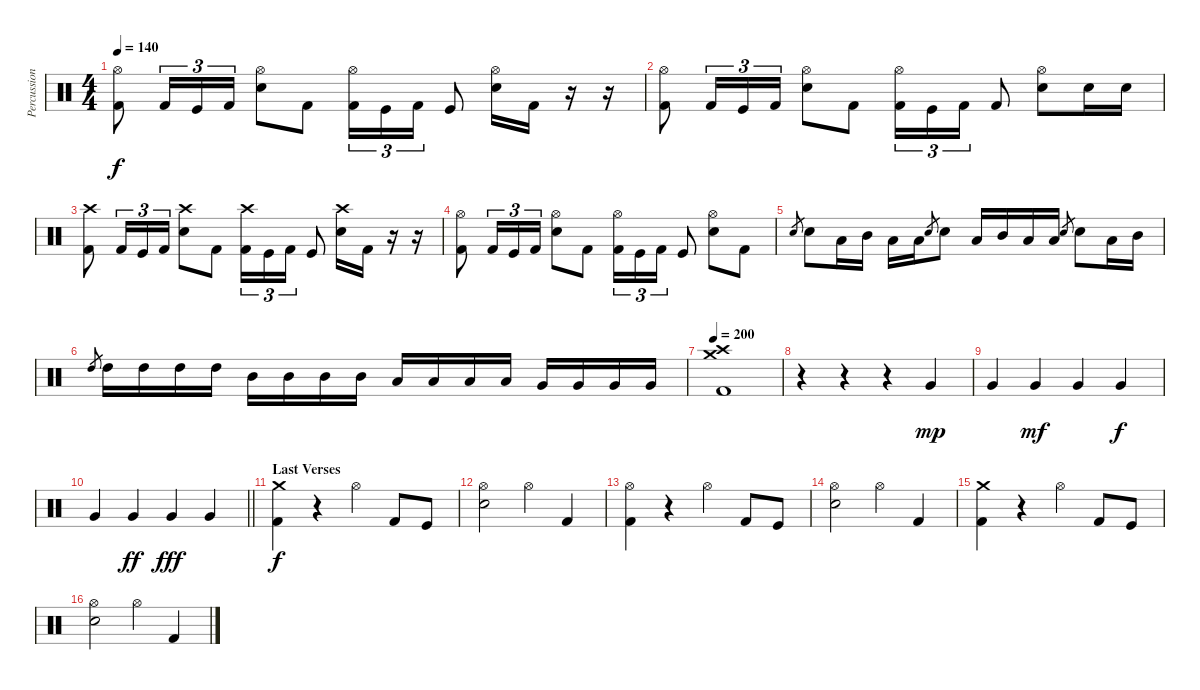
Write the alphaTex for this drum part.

\track ("Percussion" "Percussion") {instrument percussion}
\staff {score}
\articulation defaults
\ts (4 4)
\tempo 140
\clef neutral
\ks c
("Hi-Hat (open)" "Kick (hit) 2").8{dy f} "Kick (hit) 2".16{tu (3 2)} "Kick (hit)".16{tu (3 2)} "Kick (hit) 2".16{tu (3 2)} ("Hi-Hat (open)" "Snare (hit) 2").8 "Kick (hit) 2".8 ("Hi-Hat (open)" "Kick (hit) 2").16{tu (3 2)} "Kick (hit)".16{tu (3 2)} "Kick (hit) 2".16{tu (3 2)} "Kick (hit)".8 ("Hi-Hat (open)" "Snare (hit) 2").16 "Kick (hit) 2".16 r.16 r.16 |
("Hi-Hat (open)" "Kick (hit) 2").8 "Kick (hit) 2".16{tu (3 2)} "Kick (hit)".16{tu (3 2)} "Kick (hit) 2".16{tu (3 2)} ("Hi-Hat (open)" "Snare (hit) 2").8 "Kick (hit) 2".8 ("Hi-Hat (open)" "Kick (hit) 2").16{tu (3 2)} "Kick (hit)".16{tu (3 2)} "Kick (hit) 2".16{tu (3 2)} "Kick (hit) 2".8 ("Hi-Hat (open)" "Snare (hit) 2").8 "Snare (hit) 2".16 "Snare (hit) 2".16 |
("Crash high (hit)" "Kick (hit) 2").8 "Kick (hit) 2".16{tu (3 2)} "Kick (hit)".16{tu (3 2)} "Kick (hit) 2".16{tu (3 2)} ("Crash high (hit)" "Snare (hit) 2").8 "Kick (hit) 2".8 ("Crash high (hit)" "Kick (hit) 2").16{tu (3 2)} "Kick (hit)".16{tu (3 2)} "Kick (hit) 2".16{tu (3 2)} "Kick (hit)".8 ("Crash high (hit)" "Snare (hit) 2").16 "Kick (hit) 2".16 r.16 r.16 |
("Hi-Hat (open)" "Kick (hit) 2").8 "Kick (hit) 2".16{tu (3 2)} "Kick (hit)".16{tu (3 2)} "Kick (hit) 2".16{tu (3 2)} ("Hi-Hat (open)" "Snare (hit) 2").8 "Kick (hit) 2".8 ("Hi-Hat (open)" "Kick (hit) 2").16{tu (3 2)} "Kick (hit)".16{tu (3 2)} "Kick (hit) 2".16{tu (3 2)} "Kick (hit)".8 ("Hi-Hat (open)" "Snare (hit) 2").8 "Kick (hit) 2".8 |
"Snare (hit) 2".8{gr} "Snare (hit) 2".8 "Low Tom (hit)".16 "Mid Tom (hit)".16 "Low Tom (hit)".16 "Low Tom (hit)".16 "Snare (hit) 2".8{gr} "Snare (hit) 2".8 "Low Tom (hit)".16 "Mid Tom (hit)".16 "Low Tom (hit)".16 "Low Tom (hit)".16 "Snare (hit) 2".8{gr} "Snare (hit) 2".8 "Low Tom (hit)".16 "Mid Tom (hit)".16 |
"High Tom (hit)".8{gr} "High Tom (hit)".16 "High Tom (hit)".16 "High Tom (hit)".16 "High Tom (hit)".16 "Mid Tom (hit)".16 "Mid Tom (hit)".16 "Mid Tom (hit)".16 "Mid Tom (hit)".16 "Low Tom (hit)".16 "Low Tom (hit)".16 "Low Tom (hit)".16 "Low Tom (hit)".16 "Very Low Tom (hit)".16 "Very Low Tom (hit)".16 "Very Low Tom (hit)".16 "Very Low Tom (hit)".16 |
\tempo 200
("Crash medium (hit)" "Crash high (hit)" "Kick (hit) 2").1 |
r.4 r.4 r.4 "Very Low Tom (hit)".4{dy mp} |
"Very Low Tom (hit)".4 "Very Low Tom (hit)".4{dy mf} "Very Low Tom (hit)".4 "Very Low Tom (hit)".4{dy f} |
\barLineRight lightlight "Very Low Tom (hit)".4 "Very Low Tom (hit)".4{dy ff} "Very Low Tom (hit)".4{dy fff} "Very Low Tom (hit)".4
|
\section ("" "Last Verses")
("Crash medium (hit)" "Kick (hit) 2").4{dy f} r.4 "Hi-Hat (open)".4 "Kick (hit) 2".8 "Kick (hit)".8 |
("Hi-Hat (open)" "Snare (hit) 2").2 "Hi-Hat (open)".4 "Kick (hit) 2".4 |
("Hi-Hat (open)" "Kick (hit) 2").4 r.4 "Hi-Hat (open)".4 "Kick (hit) 2".8 "Kick (hit)".8 |
("Hi-Hat (open)" "Snare (hit) 2").2 "Hi-Hat (open)".4 "Kick (hit) 2".4 |
("Crash medium (hit)" "Kick (hit) 2").4 r.4 "Hi-Hat (open)".4 "Kick (hit) 2".8 "Kick (hit)".8 |
("Hi-Hat (open)" "Snare (hit) 2").2 "Hi-Hat (open)".4 "Kick (hit) 2".4
